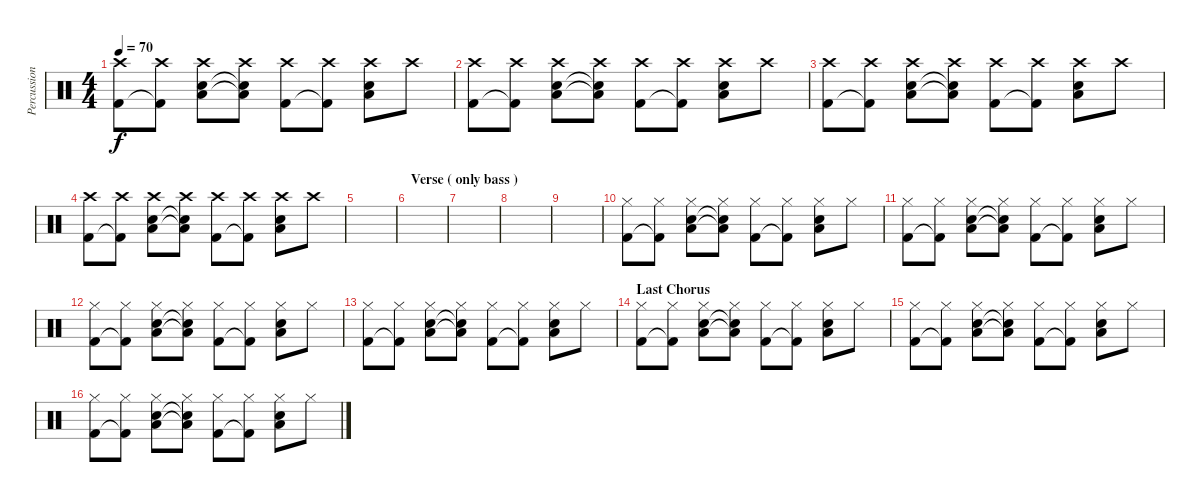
\track ("Percussions" "Percussion") {instrument percussion}
\staff {score}
\articulation defaults
\ts (4 4)
\tempo 70
\clef neutral
\ks c
("Crash high (hit)" "Kick (hit) 2").8{dy f} ("Crash high (hit)" "Kick (hit) 2"{t}).8 ("Crash high (hit)" "Electric Snare (hit)" "Low Tom (hit)").8 ("Crash high (hit)" "Electric Snare (hit)"{t} "Low Tom (hit)"{t}).8 ("Crash high (hit)" "Kick (hit) 2").8 ("Crash high (hit)" "Kick (hit) 2"{t}).8 ("Crash high (hit)" "Electric Snare (hit)" "Low Tom (hit)").8 "Crash high (hit)".8 |
("Crash high (hit)" "Kick (hit) 2").8 ("Crash high (hit)" "Kick (hit) 2"{t}).8 ("Crash high (hit)" "Electric Snare (hit)" "Low Tom (hit)").8 ("Crash high (hit)" "Electric Snare (hit)"{t} "Low Tom (hit)"{t}).8 ("Crash high (hit)" "Kick (hit) 2").8 ("Crash high (hit)" "Kick (hit) 2"{t}).8 ("Crash high (hit)" "Electric Snare (hit)" "Low Tom (hit)").8 "Crash high (hit)".8 |
("Crash high (hit)" "Kick (hit) 2").8 ("Crash high (hit)" "Kick (hit) 2"{t}).8 ("Crash high (hit)" "Electric Snare (hit)" "Low Tom (hit)").8 ("Crash high (hit)" "Electric Snare (hit)"{t} "Low Tom (hit)"{t}).8 ("Crash high (hit)" "Kick (hit) 2").8 ("Crash high (hit)" "Kick (hit) 2"{t}).8 ("Crash high (hit)" "Electric Snare (hit)" "Low Tom (hit)").8 "Crash high (hit)".8 |
("Crash high (hit)" "Kick (hit) 2").8 ("Crash high (hit)" "Kick (hit) 2"{t}).8 ("Crash high (hit)" "Electric Snare (hit)" "Low Tom (hit)").8 ("Crash high (hit)" "Electric Snare (hit)"{t} "Low Tom (hit)"{t}).8 ("Crash high (hit)" "Kick (hit) 2").8 ("Crash high (hit)" "Kick (hit) 2"{t}).8 ("Crash high (hit)" "Electric Snare (hit)" "Low Tom (hit)").8 "Crash high (hit)".8 |
|
\section ("" "Verse ( only bass )")
|
|
|
|
("Hi-Hat (closed)" "Kick (hit) 2").8 ("Hi-Hat (closed)" "Kick (hit) 2"{t}).8 ("Hi-Hat (closed)" "Electric Snare (hit)" "Low Tom (hit)").8 ("Hi-Hat (closed)" "Electric Snare (hit)"{t} "Low Tom (hit)"{t}).8 ("Hi-Hat (closed)" "Kick (hit) 2").8 ("Hi-Hat (closed)" "Kick (hit) 2"{t}).8 ("Hi-Hat (closed)" "Electric Snare (hit)" "Low Tom (hit)").8 "Hi-Hat (closed)".8 |
("Hi-Hat (closed)" "Kick (hit) 2").8 ("Hi-Hat (closed)" "Kick (hit) 2"{t}).8 ("Hi-Hat (closed)" "Electric Snare (hit)" "Low Tom (hit)").8 ("Hi-Hat (closed)" "Electric Snare (hit)"{t} "Low Tom (hit)"{t}).8 ("Hi-Hat (closed)" "Kick (hit) 2").8 ("Hi-Hat (closed)" "Kick (hit) 2"{t}).8 ("Hi-Hat (closed)" "Electric Snare (hit)" "Low Tom (hit)").8 "Hi-Hat (closed)".8 |
("Hi-Hat (closed)" "Kick (hit) 2").8 ("Hi-Hat (closed)" "Kick (hit) 2"{t}).8 ("Hi-Hat (closed)" "Electric Snare (hit)" "Low Tom (hit)").8 ("Hi-Hat (closed)" "Electric Snare (hit)"{t} "Low Tom (hit)"{t}).8 ("Hi-Hat (closed)" "Kick (hit) 2").8 ("Hi-Hat (closed)" "Kick (hit) 2"{t}).8 ("Hi-Hat (closed)" "Electric Snare (hit)" "Low Tom (hit)").8 "Hi-Hat (closed)".8 |
("Hi-Hat (closed)" "Kick (hit) 2").8 ("Hi-Hat (closed)" "Kick (hit) 2"{t}).8 ("Hi-Hat (closed)" "Electric Snare (hit)" "Low Tom (hit)").8 ("Hi-Hat (closed)" "Electric Snare (hit)"{t} "Low Tom (hit)"{t}).8 ("Hi-Hat (closed)" "Kick (hit) 2").8 ("Hi-Hat (closed)" "Kick (hit) 2"{t}).8 ("Hi-Hat (closed)" "Electric Snare (hit)" "Low Tom (hit)").8 "Hi-Hat (closed)".8 |
\section ("" "Last Chorus")
("Hi-Hat (closed)" "Kick (hit) 2").8 ("Hi-Hat (closed)" "Kick (hit) 2"{t}).8 ("Hi-Hat (closed)" "Electric Snare (hit)" "Low Tom (hit)").8 ("Hi-Hat (closed)" "Electric Snare (hit)"{t} "Low Tom (hit)"{t}).8 ("Hi-Hat (closed)" "Kick (hit) 2").8 ("Hi-Hat (closed)" "Kick (hit) 2"{t}).8 ("Hi-Hat (closed)" "Electric Snare (hit)" "Low Tom (hit)").8 "Hi-Hat (closed)".8 |
("Hi-Hat (closed)" "Kick (hit) 2").8 ("Hi-Hat (closed)" "Kick (hit) 2"{t}).8 ("Hi-Hat (closed)" "Electric Snare (hit)" "Low Tom (hit)").8 ("Hi-Hat (closed)" "Electric Snare (hit)"{t} "Low Tom (hit)"{t}).8 ("Hi-Hat (closed)" "Kick (hit) 2").8 ("Hi-Hat (closed)" "Kick (hit) 2"{t}).8 ("Hi-Hat (closed)" "Electric Snare (hit)" "Low Tom (hit)").8 "Hi-Hat (closed)".8 |
("Hi-Hat (closed)" "Kick (hit) 2").8 ("Hi-Hat (closed)" "Kick (hit) 2"{t}).8 ("Hi-Hat (closed)" "Electric Snare (hit)" "Low Tom (hit)").8 ("Hi-Hat (closed)" "Electric Snare (hit)"{t} "Low Tom (hit)"{t}).8 ("Hi-Hat (closed)" "Kick (hit) 2").8 ("Hi-Hat (closed)" "Kick (hit) 2"{t}).8 ("Hi-Hat (closed)" "Electric Snare (hit)" "Low Tom (hit)").8 "Hi-Hat (closed)".8
